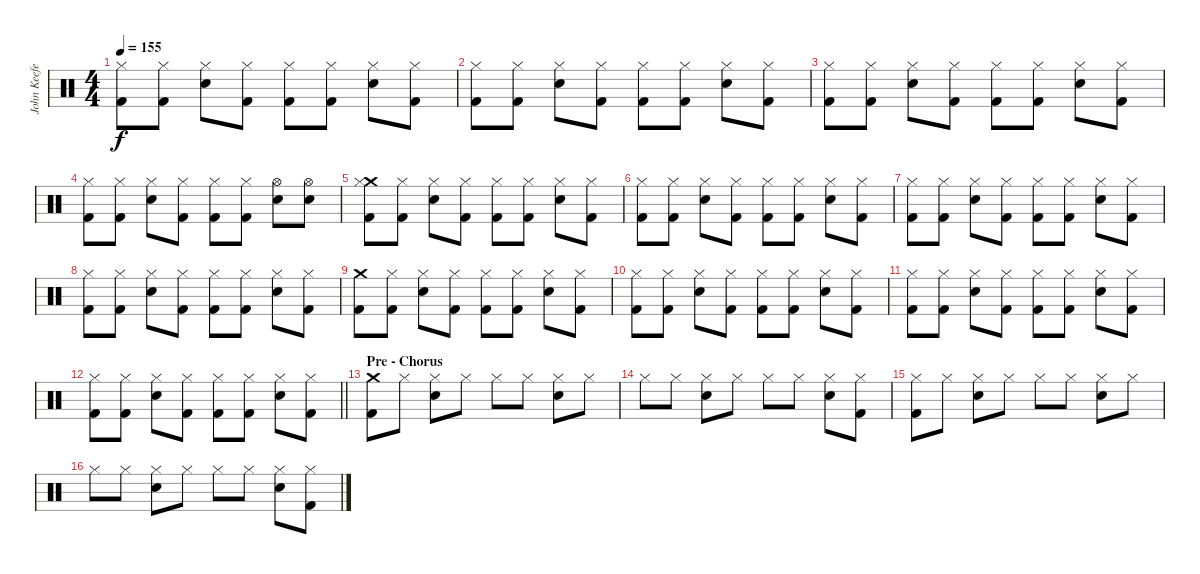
\track ("John Keefe (Percussion)" "John Keefe") {instrument percussion}
\staff {score}
\articulation defaults
\ts (4 4)
\tempo 155
\clef neutral
\ks c
("Kick (hit) 2" "Hi-Hat (closed)").8{dy f} ("Kick (hit) 2" "Hi-Hat (closed)").8 ("Electric Snare (hit)" "Hi-Hat (closed)").8 ("Kick (hit) 2" "Hi-Hat (closed)").8 ("Kick (hit) 2" "Hi-Hat (closed)").8 ("Kick (hit) 2" "Hi-Hat (closed)").8 ("Electric Snare (hit)" "Hi-Hat (closed)").8 ("Kick (hit) 2" "Hi-Hat (closed)").8 |
("Kick (hit) 2" "Hi-Hat (closed)").8 ("Kick (hit) 2" "Hi-Hat (closed)").8 ("Electric Snare (hit)" "Hi-Hat (closed)").8 ("Kick (hit) 2" "Hi-Hat (closed)").8 ("Kick (hit) 2" "Hi-Hat (closed)").8 ("Kick (hit) 2" "Hi-Hat (closed)").8 ("Electric Snare (hit)" "Hi-Hat (closed)").8 ("Kick (hit) 2" "Hi-Hat (closed)").8 |
("Kick (hit) 2" "Hi-Hat (closed)").8 ("Kick (hit) 2" "Hi-Hat (closed)").8 ("Electric Snare (hit)" "Hi-Hat (closed)").8 ("Kick (hit) 2" "Hi-Hat (closed)").8 ("Kick (hit) 2" "Hi-Hat (closed)").8 ("Kick (hit) 2" "Hi-Hat (closed)").8 ("Electric Snare (hit)" "Hi-Hat (closed)").8 ("Kick (hit) 2" "Hi-Hat (closed)").8 |
("Kick (hit) 2" "Hi-Hat (closed)").8 ("Kick (hit) 2" "Hi-Hat (closed)").8 ("Electric Snare (hit)" "Hi-Hat (closed)").8 ("Kick (hit) 2" "Hi-Hat (closed)").8 ("Kick (hit) 2" "Hi-Hat (closed)").8 ("Kick (hit) 2" "Hi-Hat (closed)").8 ("Electric Snare (hit)" "Hi-Hat (open)").8 ("Electric Snare (hit)" "Hi-Hat (open)").8 |
("Kick (hit) 2" "Crash medium (hit)" "Hi-Hat (closed)").8 ("Kick (hit) 2" "Hi-Hat (closed)").8 ("Electric Snare (hit)" "Hi-Hat (closed)").8 ("Kick (hit) 2" "Hi-Hat (closed)").8 ("Kick (hit) 2" "Hi-Hat (closed)").8 ("Kick (hit) 2" "Hi-Hat (closed)").8 ("Electric Snare (hit)" "Hi-Hat (closed)").8 ("Kick (hit) 2" "Hi-Hat (closed)").8 |
("Kick (hit) 2" "Hi-Hat (closed)").8 ("Kick (hit) 2" "Hi-Hat (closed)").8 ("Electric Snare (hit)" "Hi-Hat (closed)").8 ("Kick (hit) 2" "Hi-Hat (closed)").8 ("Kick (hit) 2" "Hi-Hat (closed)").8 ("Kick (hit) 2" "Hi-Hat (closed)").8 ("Electric Snare (hit)" "Hi-Hat (closed)").8 ("Kick (hit) 2" "Hi-Hat (closed)").8 |
("Kick (hit) 2" "Hi-Hat (closed)").8 ("Kick (hit) 2" "Hi-Hat (closed)").8 ("Electric Snare (hit)" "Hi-Hat (closed)").8 ("Kick (hit) 2" "Hi-Hat (closed)").8 ("Kick (hit) 2" "Hi-Hat (closed)").8 ("Kick (hit) 2" "Hi-Hat (closed)").8 ("Electric Snare (hit)" "Hi-Hat (closed)").8 ("Kick (hit) 2" "Hi-Hat (closed)").8 |
("Kick (hit) 2" "Hi-Hat (closed)").8 ("Kick (hit) 2" "Hi-Hat (closed)").8 ("Electric Snare (hit)" "Hi-Hat (closed)").8 ("Kick (hit) 2" "Hi-Hat (closed)").8 ("Kick (hit) 2" "Hi-Hat (closed)").8 ("Kick (hit) 2" "Hi-Hat (closed)").8 ("Electric Snare (hit)" "Hi-Hat (closed)").8 ("Kick (hit) 2" "Hi-Hat (closed)").8 |
("Kick (hit) 2" "Crash medium (hit)").8 ("Kick (hit) 2" "Hi-Hat (closed)").8 ("Electric Snare (hit)" "Hi-Hat (closed)").8 ("Kick (hit) 2" "Hi-Hat (closed)").8 ("Kick (hit) 2" "Hi-Hat (closed)").8 ("Kick (hit) 2" "Hi-Hat (closed)").8 ("Electric Snare (hit)" "Hi-Hat (closed)").8 ("Kick (hit) 2" "Hi-Hat (closed)").8 |
("Kick (hit) 2" "Hi-Hat (closed)").8 ("Kick (hit) 2" "Hi-Hat (closed)").8 ("Electric Snare (hit)" "Hi-Hat (closed)").8 ("Kick (hit) 2" "Hi-Hat (closed)").8 ("Kick (hit) 2" "Hi-Hat (closed)").8 ("Kick (hit) 2" "Hi-Hat (closed)").8 ("Electric Snare (hit)" "Hi-Hat (closed)").8 ("Kick (hit) 2" "Hi-Hat (closed)").8 |
("Kick (hit) 2" "Hi-Hat (closed)").8 ("Kick (hit) 2" "Hi-Hat (closed)").8 ("Electric Snare (hit)" "Hi-Hat (closed)").8 ("Kick (hit) 2" "Hi-Hat (closed)").8 ("Kick (hit) 2" "Hi-Hat (closed)").8 ("Kick (hit) 2" "Hi-Hat (closed)").8 ("Electric Snare (hit)" "Hi-Hat (closed)").8 ("Kick (hit) 2" "Hi-Hat (closed)").8 |
\barLineRight lightlight
("Kick (hit) 2" "Hi-Hat (closed)").8 ("Kick (hit) 2" "Hi-Hat (closed)").8 ("Electric Snare (hit)" "Hi-Hat (closed)").8 ("Kick (hit) 2" "Hi-Hat (closed)").8 ("Kick (hit) 2" "Hi-Hat (closed)").8 ("Kick (hit) 2" "Hi-Hat (closed)").8 ("Electric Snare (hit)" "Hi-Hat (closed)").8 ("Kick (hit) 2" "Hi-Hat (closed)").8 |
\section ("" "Pre - Chorus")
("Kick (hit) 2" "Crash medium (hit)").8 "Hi-Hat (closed)".8 ("Electric Snare (hit)" "Hi-Hat (closed)").8 "Hi-Hat (closed)".8 "Hi-Hat (closed)".8 "Hi-Hat (closed)".8 ("Electric Snare (hit)" "Hi-Hat (closed)").8 "Hi-Hat (closed)".8 |
"Hi-Hat (closed)".8 "Hi-Hat (closed)".8 ("Electric Snare (hit)" "Hi-Hat (closed)").8 "Hi-Hat (closed)".8 "Hi-Hat (closed)".8 "Hi-Hat (closed)".8 ("Electric Snare (hit)" "Hi-Hat (closed)").8 ("Kick (hit) 2" "Hi-Hat (closed)").8 |
("Kick (hit) 2" "Hi-Hat (closed)").8 "Hi-Hat (closed)".8 ("Electric Snare (hit)" "Hi-Hat (closed)").8 "Hi-Hat (closed)".8 "Hi-Hat (closed)".8 "Hi-Hat (closed)".8 ("Electric Snare (hit)" "Hi-Hat (closed)").8 "Hi-Hat (closed)".8 |
"Hi-Hat (closed)".8 "Hi-Hat (closed)".8 ("Electric Snare (hit)" "Hi-Hat (closed)").8 "Hi-Hat (closed)".8 "Hi-Hat (closed)".8 "Hi-Hat (closed)".8 ("Electric Snare (hit)" "Hi-Hat (closed)").8 ("Kick (hit) 2" "Hi-Hat (closed)").8
